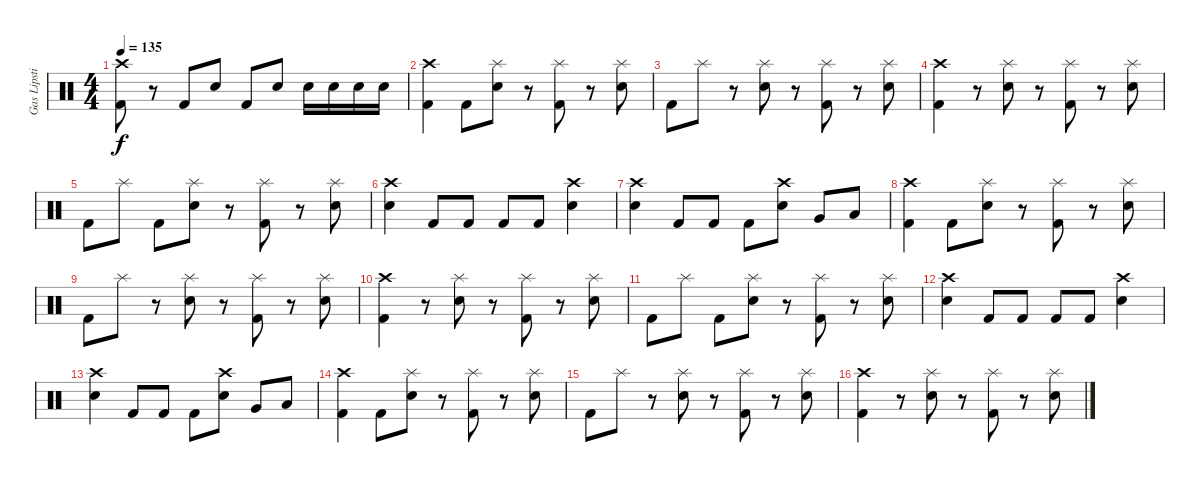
\track ("Gas Lipstick" "Gas Lipsti") {instrument percussion}
\staff {score}
\articulation defaults
\ts (4 4)
\tempo 135
\clef neutral
\ks c
("Crash high (hit)" "Kick (hit) 2").8{dy f} r.8 "Kick (hit) 2".8 "Electric Snare (hit)".8 "Kick (hit) 2".8 "Electric Snare (hit)".8 "Electric Snare (hit)".16 "Electric Snare (hit)".16 "Electric Snare (hit)".16 "Electric Snare (hit)".16 |
("Crash high (hit)" "Kick (hit) 2").4 "Kick (hit) 2".8 ("Splash (hit)" "Electric Snare (hit)").8 r.8 ("Splash (hit)" "Kick (hit) 2").8 r.8 ("Splash (hit)" "Electric Snare (hit)").8 |
"Kick (hit) 2".8 "Splash (hit)".8 r.8 ("Splash (hit)" "Electric Snare (hit)").8 r.8 ("Splash (hit)" "Kick (hit) 2").8 r.8 ("Splash (hit)" "Electric Snare (hit)").8 |
("Crash high (hit)" "Kick (hit) 2").4 r.8 ("Splash (hit)" "Electric Snare (hit)").8 r.8 ("Splash (hit)" "Kick (hit) 2").8 r.8 ("Splash (hit)" "Electric Snare (hit)").8 |
"Kick (hit) 2".8 "Splash (hit)".8 "Kick (hit) 2".8 ("Splash (hit)" "Electric Snare (hit)").8 r.8 ("Splash (hit)" "Kick (hit) 2").8 r.8 ("Splash (hit)" "Electric Snare (hit)").8 |
("Crash high (hit)" "Electric Snare (hit)").4 "Kick (hit) 2".8 "Kick (hit) 2".8 "Kick (hit) 2".8 "Kick (hit) 2".8 ("Crash high (hit)" "Electric Snare (hit)").4 |
("Crash high (hit)" "Electric Snare (hit)").4 "Kick (hit) 2".8 "Kick (hit) 2".8 "Kick (hit) 2".8 ("Crash high (hit)" "Electric Snare (hit)").8 "Very Low Tom (hit)".8 "Low Floor Tom (hit)".8 |
("Crash high (hit)" "Kick (hit) 2").4 "Kick (hit) 2".8 ("Splash (hit)" "Electric Snare (hit)").8 r.8 ("Splash (hit)" "Kick (hit) 2").8 r.8 ("Splash (hit)" "Electric Snare (hit)").8 |
"Kick (hit) 2".8 "Splash (hit)".8 r.8 ("Splash (hit)" "Electric Snare (hit)").8 r.8 ("Splash (hit)" "Kick (hit) 2").8 r.8 ("Splash (hit)" "Electric Snare (hit)").8 |
("Crash high (hit)" "Kick (hit) 2").4 r.8 ("Splash (hit)" "Electric Snare (hit)").8 r.8 ("Splash (hit)" "Kick (hit) 2").8 r.8 ("Splash (hit)" "Electric Snare (hit)").8 |
"Kick (hit) 2".8 "Splash (hit)".8 "Kick (hit) 2".8 ("Splash (hit)" "Electric Snare (hit)").8 r.8 ("Splash (hit)" "Kick (hit) 2").8 r.8 ("Splash (hit)" "Electric Snare (hit)").8 |
("Crash high (hit)" "Electric Snare (hit)").4 "Kick (hit) 2".8 "Kick (hit) 2".8 "Kick (hit) 2".8 "Kick (hit) 2".8 ("Crash high (hit)" "Electric Snare (hit)").4 |
("Crash high (hit)" "Electric Snare (hit)").4 "Kick (hit) 2".8 "Kick (hit) 2".8 "Kick (hit) 2".8 ("Crash high (hit)" "Electric Snare (hit)").8 "Very Low Tom (hit)".8 "Low Floor Tom (hit)".8 |
("Crash high (hit)" "Kick (hit) 2").4 "Kick (hit) 2".8 ("Splash (hit)" "Electric Snare (hit)").8 r.8 ("Splash (hit)" "Kick (hit) 2").8 r.8 ("Splash (hit)" "Electric Snare (hit)").8 |
"Kick (hit) 2".8 "Splash (hit)".8 r.8 ("Splash (hit)" "Electric Snare (hit)").8 r.8 ("Splash (hit)" "Kick (hit) 2").8 r.8 ("Splash (hit)" "Electric Snare (hit)").8 |
("Crash high (hit)" "Kick (hit) 2").4 r.8 ("Splash (hit)" "Electric Snare (hit)").8 r.8 ("Splash (hit)" "Kick (hit) 2").8 r.8 ("Splash (hit)" "Electric Snare (hit)").8
